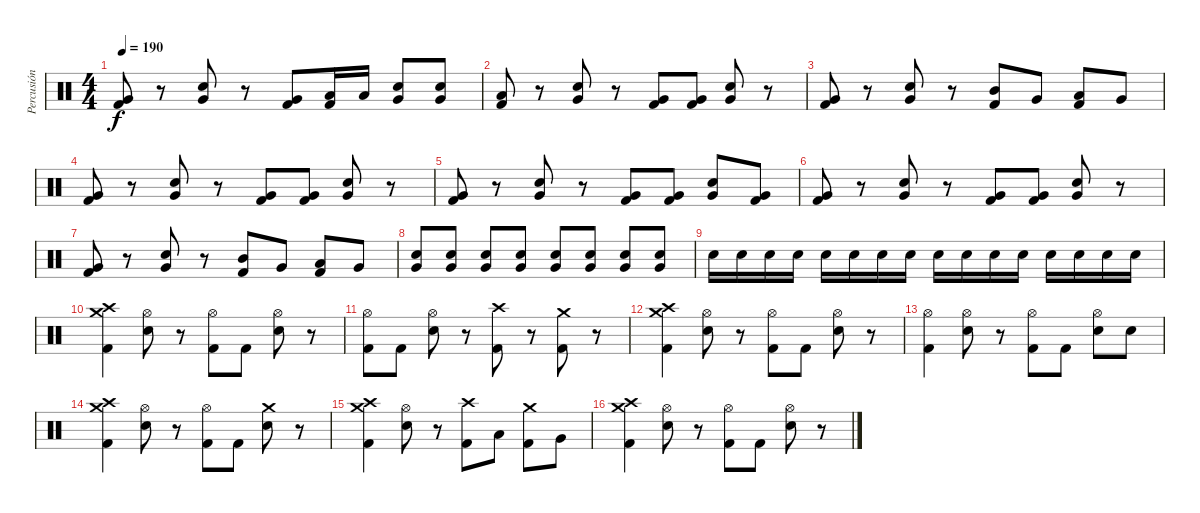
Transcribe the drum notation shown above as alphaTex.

\track ("Percusión" "Percusión") {instrument percussion}
\staff {score}
\articulation defaults
\ts (4 4)
\tempo 190
\clef neutral
\ks c
("Very Low Tom (hit)" "Kick (hit) 2").8{dy f} r.8 ("Very Low Tom (hit)" "Electric Snare (hit)").8 r.8 ("Very Low Tom (hit)" "Kick (hit) 2").8 ("Low Tom (hit)" "Kick (hit) 2").16 "Low Tom (hit)".16 ("Very Low Tom (hit)" "Electric Snare (hit)").8 ("Very Low Tom (hit)" "Electric Snare (hit)").8 |
("Low Tom (hit)" "Kick (hit) 2").8 r.8 ("Very Low Tom (hit)" "Electric Snare (hit)").8 r.8 ("Very Low Tom (hit)" "Kick (hit) 2").8 ("Very Low Tom (hit)" "Kick (hit) 2").8 ("Very Low Tom (hit)" "Electric Snare (hit)").8 r.8 |
("Very Low Tom (hit)" "Kick (hit) 2").8 r.8 ("Very Low Tom (hit)" "Electric Snare (hit)").8 r.8 ("Mid Tom (hit)" "Kick (hit) 2").8 "Very Low Tom (hit)".8 ("Low Tom (hit)" "Kick (hit) 2").8 "Very Low Tom (hit)".8 |
("Very Low Tom (hit)" "Kick (hit) 2").8 r.8 ("Very Low Tom (hit)" "Electric Snare (hit)").8 r.8 ("Very Low Tom (hit)" "Kick (hit) 2").8 ("Very Low Tom (hit)" "Kick (hit) 2").8 ("Very Low Tom (hit)" "Electric Snare (hit)").8 r.8 |
("Very Low Tom (hit)" "Kick (hit) 2").8 r.8 ("Very Low Tom (hit)" "Electric Snare (hit)").8 r.8 ("Very Low Tom (hit)" "Kick (hit) 2").8 ("Very Low Tom (hit)" "Kick (hit) 2").8 ("Very Low Tom (hit)" "Electric Snare (hit)").8 ("Very Low Tom (hit)" "Kick (hit) 2").8 |
("Very Low Tom (hit)" "Kick (hit) 2").8 r.8 ("Very Low Tom (hit)" "Electric Snare (hit)").8 r.8 ("Very Low Tom (hit)" "Kick (hit) 2").8 ("Very Low Tom (hit)" "Kick (hit) 2").8 ("Very Low Tom (hit)" "Electric Snare (hit)").8 r.8 |
("Very Low Tom (hit)" "Kick (hit) 2").8 r.8 ("Very Low Tom (hit)" "Electric Snare (hit)").8 r.8 ("Mid Tom (hit)" "Kick (hit) 2").8 "Very Low Tom (hit)".8 ("Low Tom (hit)" "Kick (hit) 2").8 "Very Low Tom (hit)".8 |
("Very Low Tom (hit)" "Electric Snare (hit)").8 ("Very Low Tom (hit)" "Electric Snare (hit)").8 ("Very Low Tom (hit)" "Electric Snare (hit)").8 ("Very Low Tom (hit)" "Electric Snare (hit)").8 ("Very Low Tom (hit)" "Electric Snare (hit)").8 ("Very Low Tom (hit)" "Electric Snare (hit)").8 ("Very Low Tom (hit)" "Electric Snare (hit)").8 ("Very Low Tom (hit)" "Electric Snare (hit)").8 |
"Electric Snare (hit)".16 "Electric Snare (hit)".16 "Electric Snare (hit)".16 "Electric Snare (hit)".16 "Electric Snare (hit)".16 "Electric Snare (hit)".16 "Electric Snare (hit)".16 "Electric Snare (hit)".16 "Electric Snare (hit)".16 "Electric Snare (hit)".16 "Electric Snare (hit)".16 "Electric Snare (hit)".16 "Electric Snare (hit)".16 "Electric Snare (hit)".16 "Electric Snare (hit)".16 "Electric Snare (hit)".16 |
("Crash high (hit)" "Crash medium (hit)" "Kick (hit) 2").4 ("Hi-Hat (open)" "Electric Snare (hit)").8 r.8 ("Hi-Hat (open)" "Kick (hit) 2").8 "Kick (hit) 2".8 ("Hi-Hat (open)" "Electric Snare (hit)").8 r.8 |
("Hi-Hat (open)" "Kick (hit) 2").8 "Kick (hit) 2".8 ("Hi-Hat (open)" "Electric Snare (hit)").8 r.8 ("Crash high (hit)" "Kick (hit) 2").8 r.8 ("Crash medium (hit)" "Kick (hit) 2").8 r.8 |
("Crash high (hit)" "Crash medium (hit)" "Kick (hit) 2").4 ("Hi-Hat (open)" "Electric Snare (hit)").8 r.8 ("Hi-Hat (open)" "Kick (hit) 2").8 "Kick (hit) 2".8 ("Hi-Hat (open)" "Electric Snare (hit)").8 r.8 |
("Hi-Hat (open)" "Kick (hit) 2").4 ("Hi-Hat (open)" "Electric Snare (hit)").8 r.8 ("Hi-Hat (open)" "Kick (hit) 2").8 "Kick (hit) 2".8 ("Hi-Hat (open)" "Electric Snare (hit)").8 "Electric Snare (hit)".8 |
("Crash high (hit)" "Crash medium (hit)" "Kick (hit) 2").4 ("Hi-Hat (open)" "Electric Snare (hit)").8 r.8 ("Hi-Hat (open)" "Kick (hit) 2").8 "Kick (hit) 2".8 ("Crash medium (hit)" "Electric Snare (hit)").8 r.8 |
("Crash high (hit)" "Crash medium (hit)" "Kick (hit) 2").4 ("Hi-Hat (open)" "Electric Snare (hit)").8 r.8 ("Crash high (hit)" "Kick (hit) 2").8 "Low Tom (hit)".8 ("Crash medium (hit)" "Kick (hit) 2").8 "Very Low Tom (hit)".8 |
("Crash high (hit)" "Crash medium (hit)" "Kick (hit) 2").4 ("Hi-Hat (open)" "Electric Snare (hit)").8 r.8 ("Hi-Hat (open)" "Kick (hit) 2").8 "Kick (hit) 2".8 ("Hi-Hat (open)" "Electric Snare (hit)").8 r.8
